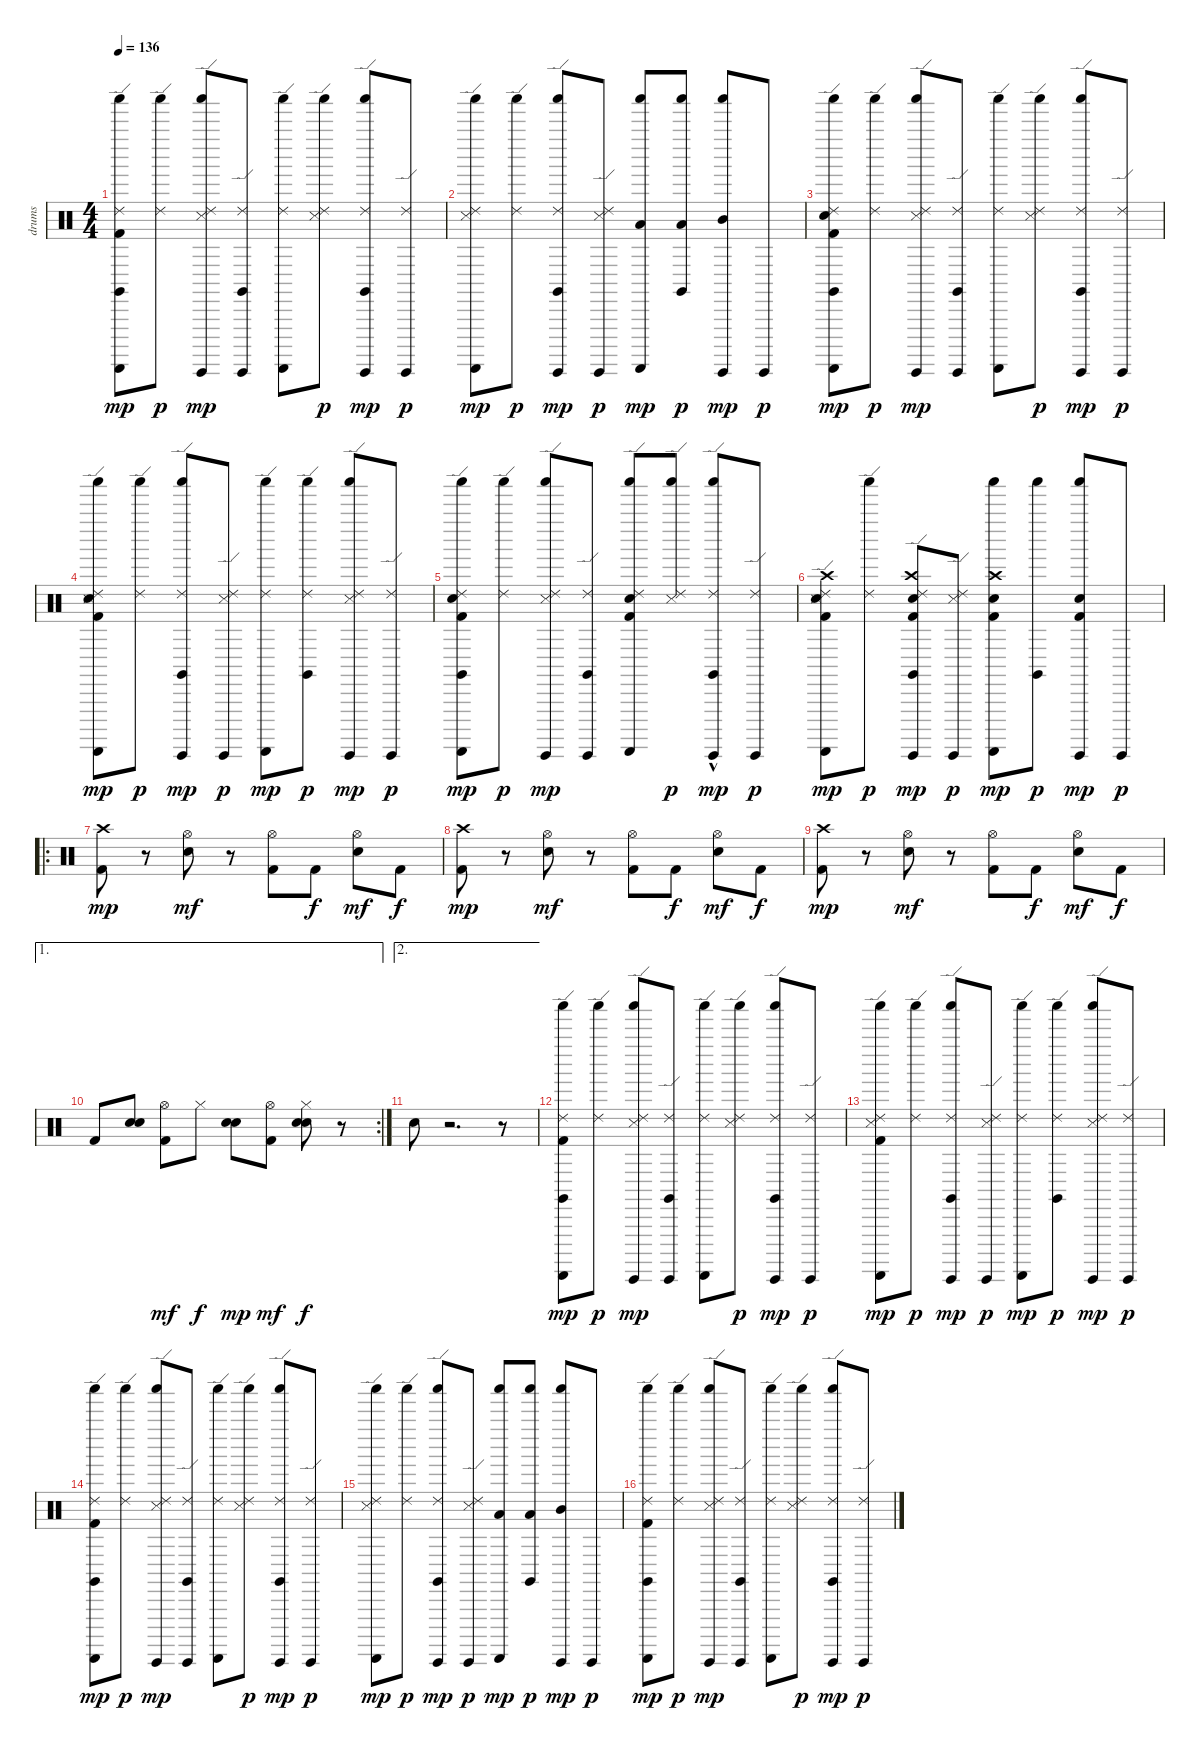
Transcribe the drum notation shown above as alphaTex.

\track ("drums" "drums") {instrument percussion}
\staff {score}
\articulation defaults
\ts (4 4)
\tempo 136
\clef neutral
\ks c
("Kick (hit) 2" "Ride (edge) 2" "Guiro (scrap-return)" "Claves (hit)" "Shaker (hit)").8{dy mp} ("Ride (edge) 2" "Shaker (hit)").8{dy p} ("Snare (side stick) 3" "Ride (edge) 2" "Guiro (hit)" "Shaker (hit)").8{dy mp} ("Ride (edge) 2" "Guiro (hit)" "Claves (hit)").8 ("Ride (edge) 2" "Guiro (scrap-return)" "Shaker (hit)").8 ("Snare (side stick) 3" "Ride (edge) 2" "Shaker (hit)").8{dy p} ("Ride (edge) 2" "Guiro (hit)" "Claves (hit)" "Shaker (hit)").8{dy mp} ("Ride (edge) 2" "Guiro (hit)").8{dy p} |
("Snare (side stick) 3" "Ride (edge) 2" "Guiro (scrap-return)" "Shaker (hit)").8{dy mp} ("Ride (edge) 2" "Shaker (hit)").8{dy p} ("Ride (edge) 2" "Guiro (hit)" "Claves (hit)" "Shaker (hit)").8{dy mp} ("Snare (side stick) 3" "Ride (edge) 2" "Guiro (hit)").8{dy p} ("Low Tom (hit)" "Guiro (scrap-return)" "Shaker (hit)").8{dy mp} ("Low Tom (hit)" "Claves (hit)" "Shaker (hit)").8{dy p} ("Mid Tom (hit)" "Guiro (hit)" "Shaker (hit)").8{dy mp} "Guiro (hit)".8{dy p} |
("Kick (hit) 2" "Snare (hit) 2" "Ride (edge) 2" "Guiro (scrap-return)" "Claves (hit)" "Shaker (hit)").8{dy mp} ("Ride (edge) 2" "Shaker (hit)").8{dy p} ("Snare (side stick) 3" "Ride (edge) 2" "Guiro (hit)" "Shaker (hit)").8{dy mp} ("Ride (edge) 2" "Guiro (hit)" "Claves (hit)").8 ("Ride (edge) 2" "Guiro (scrap-return)" "Shaker (hit)").8 ("Snare (side stick) 3" "Ride (edge) 2" "Shaker (hit)").8{dy p} ("Ride (edge) 2" "Guiro (hit)" "Claves (hit)" "Shaker (hit)").8{dy mp} ("Ride (edge) 2" "Guiro (hit)").8{dy p} |
("Kick (hit) 2" "Snare (side stick) 3" "Snare (hit) 2" "Ride (edge) 2" "Guiro (scrap-return)" "Shaker (hit)").8{dy mp} ("Ride (edge) 2" "Shaker (hit)").8{dy p} ("Ride (edge) 2" "Guiro (hit)" "Claves (hit)" "Shaker (hit)").8{dy mp} ("Snare (side stick) 3" "Ride (edge) 2" "Guiro (hit)").8{dy p} ("Ride (edge) 2" "Guiro (scrap-return)" "Shaker (hit)").8{dy mp} ("Ride (edge) 2" "Claves (hit)" "Shaker (hit)").8{dy p} ("Snare (side stick) 3" "Ride (edge) 2" "Guiro (hit)" "Shaker (hit)").8{dy mp} ("Ride (edge) 2" "Guiro (hit)").8{dy p} |
("Kick (hit) 2" "Snare (hit) 2" "Ride (edge) 2" "Guiro (scrap-return)" "Claves (hit)" "Shaker (hit)").8{dy mp} ("Ride (edge) 2" "Shaker (hit)").8{dy p} ("Snare (side stick) 3" "Ride (edge) 2" "Guiro (hit)" "Shaker (hit)").8{dy mp} ("Ride (edge) 2" "Guiro (hit)" "Claves (hit)").8 ("Kick (hit) 2" "Snare (hit) 2" "Ride (edge) 2" "Guiro (scrap-return)" "Shaker (hit)").8 ("Snare (side stick) 3" "Ride (edge) 2" "Shaker (hit)").8{dy p} ("Ride (edge) 2" "Guiro (hit)" "Claves (hit)" "Shaker (hit)"{hac}).8{dy mp} ("Ride (edge) 2" "Guiro (hit)").8{dy p} |
("Kick (hit) 2" "Snare (side stick) 3" "Snare (hit) 2" "Crash high (hit)" "Ride (edge) 2" "Guiro (scrap-return)").8{dy mp} ("Ride (edge) 2" "Shaker (hit)").8{dy p} ("Kick (hit) 2" "Snare (hit) 2" "Crash high (hit)" "Ride (edge) 2" "Guiro (hit)" "Claves (hit)").8{dy mp} ("Snare (side stick) 3" "Ride (edge) 2" "Guiro (hit)").8{dy p} ("Kick (hit) 2" "Snare (hit) 2" "Crash high (hit)" "Guiro (scrap-return)" "Shaker (hit)").8{dy mp} ("Claves (hit)" "Shaker (hit)").8{dy p} ("Kick (hit) 2" "Snare (hit) 2" "Guiro (hit)" "Shaker (hit)").8{dy mp} "Guiro (hit)".8{dy p} |
\ro
("Kick (hit) 2" "Crash high (hit)").8{dy mp} r.8 ("Snare (hit) 2" "Hi-Hat (open)").8{dy mf} r.8 ("Kick (hit) 2" "Hi-Hat (open)").8 "Kick (hit) 2".8{dy f} ("Snare (hit) 2" "Hi-Hat (open)").8{dy mf} "Kick (hit) 2".8{dy f} |
("Kick (hit) 2" "Crash high (hit)").8{dy mp} r.8 ("Snare (hit) 2" "Hi-Hat (open)").8{dy mf} r.8 ("Kick (hit) 2" "Hi-Hat (open)").8 "Kick (hit) 2".8{dy f} ("Snare (hit) 2" "Hi-Hat (open)").8{dy mf} "Kick (hit) 2".8{dy f} |
("Kick (hit) 2" "Crash high (hit)").8{dy mp} r.8 ("Snare (hit) 2" "Hi-Hat (open)").8{dy mf} r.8 ("Kick (hit) 2" "Hi-Hat (open)").8 "Kick (hit) 2".8{dy f} ("Snare (hit) 2" "Hi-Hat (open)").8{dy mf} "Kick (hit) 2".8{dy f} |
\ae 1
\rc 2 "Kick (hit) 2".8
("Snare (hit) 2" "Snare (hit) 2").8 ("Kick (hit) 2" "Hi-Hat (open)").8{dy mf} "Hi-Hat (closed)".8{dy f} ("Snare (hit) 2" "Snare (hit) 2").8{dy mp} ("Kick (hit) 2" "Hi-Hat (open)").8{dy mf} ("Snare (hit) 2" "Snare (hit) 2" "Hi-Hat (closed)").8{dy f} r.8 |
\ae 2 "Snare (hit) 2".8
r.2{d} r.8 |
("Kick (hit) 2" "Ride (edge) 2" "Guiro (scrap-return)" "Claves (hit)" "Shaker (hit)").8{dy mp} ("Ride (edge) 2" "Shaker (hit)").8{dy p} ("Snare (side stick) 3" "Ride (edge) 2" "Guiro (hit)" "Shaker (hit)").8{dy mp} ("Ride (edge) 2" "Guiro (hit)" "Claves (hit)").8 ("Ride (edge) 2" "Guiro (scrap-return)" "Shaker (hit)").8 ("Snare (side stick) 3" "Ride (edge) 2" "Shaker (hit)").8{dy p} ("Ride (edge) 2" "Guiro (hit)" "Claves (hit)" "Shaker (hit)").8{dy mp} ("Ride (edge) 2" "Guiro (hit)").8{dy p} |
("Kick (hit) 2" "Snare (side stick) 3" "Ride (edge) 2" "Guiro (scrap-return)" "Shaker (hit)").8{dy mp} ("Ride (edge) 2" "Shaker (hit)").8{dy p} ("Ride (edge) 2" "Guiro (hit)" "Claves (hit)" "Shaker (hit)").8{dy mp} ("Snare (side stick) 3" "Ride (edge) 2" "Guiro (hit)").8{dy p} ("Ride (edge) 2" "Guiro (scrap-return)" "Shaker (hit)").8{dy mp} ("Ride (edge) 2" "Claves (hit)" "Shaker (hit)").8{dy p} ("Snare (side stick) 3" "Ride (edge) 2" "Guiro (hit)" "Shaker (hit)").8{dy mp} ("Ride (edge) 2" "Guiro (hit)").8{dy p} |
("Kick (hit) 2" "Ride (edge) 2" "Guiro (scrap-return)" "Claves (hit)" "Shaker (hit)").8{dy mp} ("Ride (edge) 2" "Shaker (hit)").8{dy p} ("Snare (side stick) 3" "Ride (edge) 2" "Guiro (hit)" "Shaker (hit)").8{dy mp} ("Ride (edge) 2" "Guiro (hit)" "Claves (hit)").8 ("Ride (edge) 2" "Guiro (scrap-return)" "Shaker (hit)").8 ("Snare (side stick) 3" "Ride (edge) 2" "Shaker (hit)").8{dy p} ("Ride (edge) 2" "Guiro (hit)" "Claves (hit)" "Shaker (hit)").8{dy mp} ("Ride (edge) 2" "Guiro (hit)").8{dy p} |
("Snare (side stick) 3" "Ride (edge) 2" "Guiro (scrap-return)" "Shaker (hit)").8{dy mp} ("Ride (edge) 2" "Shaker (hit)").8{dy p} ("Ride (edge) 2" "Guiro (hit)" "Claves (hit)" "Shaker (hit)").8{dy mp} ("Snare (side stick) 3" "Ride (edge) 2" "Guiro (hit)").8{dy p} ("Low Tom (hit)" "Guiro (scrap-return)" "Shaker (hit)").8{dy mp} ("Low Tom (hit)" "Claves (hit)" "Shaker (hit)").8{dy p} ("Mid Tom (hit)" "Guiro (hit)" "Shaker (hit)").8{dy mp} "Guiro (hit)".8{dy p} |
("Kick (hit) 2" "Ride (edge) 2" "Guiro (scrap-return)" "Claves (hit)" "Shaker (hit)").8{dy mp} ("Ride (edge) 2" "Shaker (hit)").8{dy p} ("Snare (side stick) 3" "Ride (edge) 2" "Guiro (hit)" "Shaker (hit)").8{dy mp} ("Ride (edge) 2" "Guiro (hit)" "Claves (hit)").8 ("Ride (edge) 2" "Guiro (scrap-return)" "Shaker (hit)").8 ("Snare (side stick) 3" "Ride (edge) 2" "Shaker (hit)").8{dy p} ("Ride (edge) 2" "Guiro (hit)" "Claves (hit)" "Shaker (hit)").8{dy mp} ("Ride (edge) 2" "Guiro (hit)").8{dy p}
